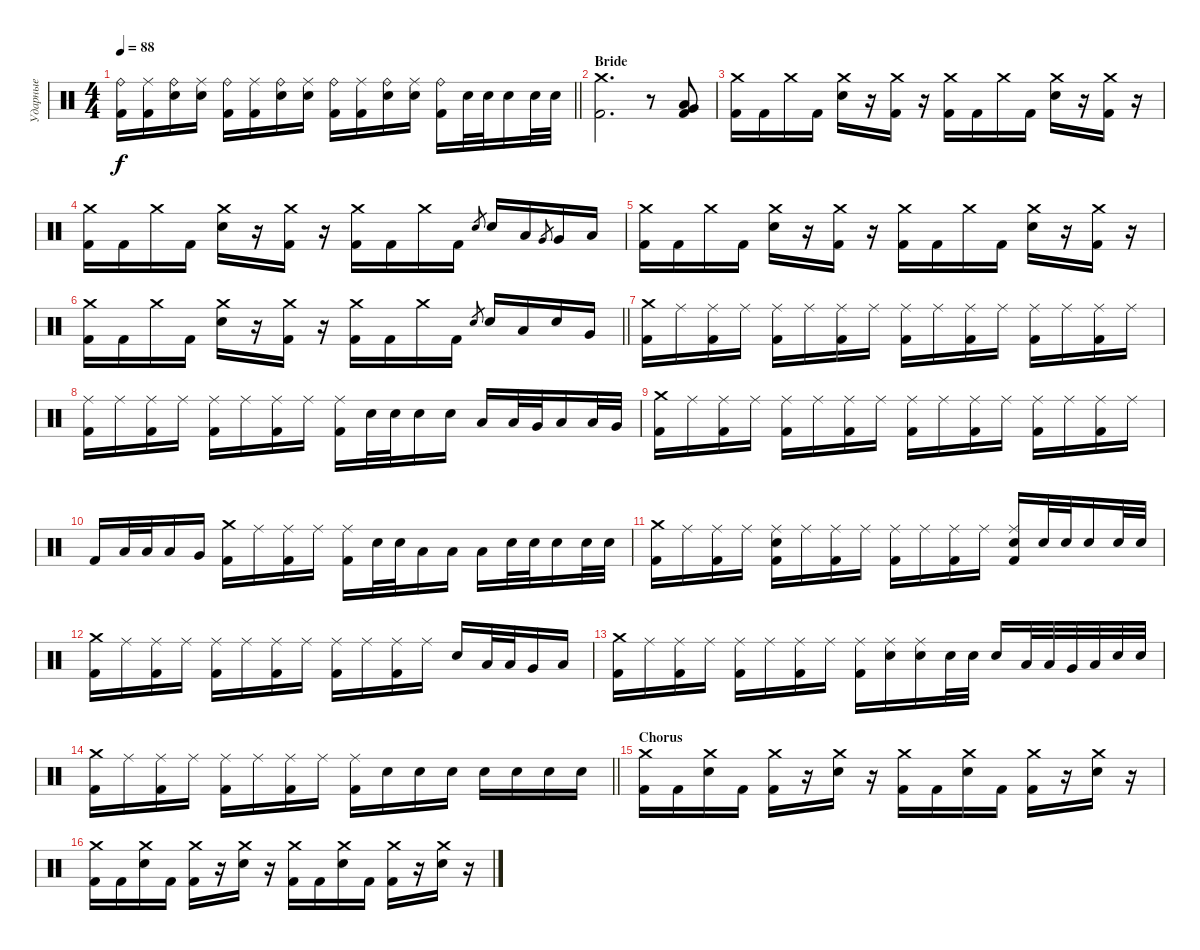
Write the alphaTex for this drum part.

\track ("Ударные" "Ударные") {instrument percussion}
\staff {score}
\articulation defaults
\ts (4 4)
\tempo 88
\clef neutral
\barLineRight lightlight
\ks c
("Ride (bell)" "Kick (hit) 2").16{dy f} ("Ride (middle)" "Kick (hit) 2").16 ("Ride (bell)" "Electric Snare (hit)").16 ("Ride (middle)" "Electric Snare (hit)").16 ("Ride (bell)" "Kick (hit) 2").16 ("Ride (middle)" "Kick (hit) 2").16 ("Ride (bell)" "Electric Snare (hit)").16 ("Ride (middle)" "Electric Snare (hit)").16 ("Ride (bell)" "Kick (hit) 2").16 ("Ride (middle)" "Kick (hit) 2").16 ("Ride (bell)" "Electric Snare (hit)").16 ("Ride (middle)" "Electric Snare (hit)").16 ("Ride (bell)" "Kick (hit) 2").16 "Electric Snare (hit)".32 "Electric Snare (hit)".32 "Electric Snare (hit)".16 "Electric Snare (hit)".32 "Electric Snare (hit)".32 |
\section ("" "Bride")
("Crash medium (hit)" "Kick (hit) 2").2{d} r.8 ("Very Low Tom (hit)" "Low Floor Tom (hit)" "Kick (hit) 2").8 |
("Crash medium (hit)" "Kick (hit) 2").16 "Kick (hit) 2".16 "Crash medium (hit)".16 "Kick (hit) 2".16 ("Crash medium (hit)" "Electric Snare (hit)").16 r.16 ("Crash medium (hit)" "Kick (hit) 2").16 r.16 ("Crash medium (hit)" "Kick (hit) 2").16 "Kick (hit) 2".16 "Crash medium (hit)".16 "Kick (hit) 2".16 ("Crash medium (hit)" "Electric Snare (hit)").16 r.16 ("Crash medium (hit)" "Kick (hit) 2").16 r.16 |
("Crash medium (hit)" "Kick (hit) 2").16 "Kick (hit) 2".16 "Crash medium (hit)".16 "Kick (hit) 2".16 ("Crash medium (hit)" "Electric Snare (hit)").16 r.16 ("Crash medium (hit)" "Kick (hit) 2").16 r.16 ("Crash medium (hit)" "Kick (hit) 2").16 "Kick (hit) 2".16 "Crash medium (hit)".16 "Kick (hit) 2".16 "Electric Snare (hit)".8{gr} "Electric Snare (hit)".16 "Low Tom (hit)".16 "Very Low Tom (hit)".8{gr} "Very Low Tom (hit)".16 "Low Floor Tom (hit)".16 |
("Crash medium (hit)" "Kick (hit) 2").16 "Kick (hit) 2".16 "Crash medium (hit)".16 "Kick (hit) 2".16 ("Crash medium (hit)" "Electric Snare (hit)").16 r.16 ("Crash medium (hit)" "Kick (hit) 2").16 r.16 ("Crash medium (hit)" "Kick (hit) 2").16 "Kick (hit) 2".16 "Crash medium (hit)".16 "Kick (hit) 2".16 ("Crash medium (hit)" "Electric Snare (hit)").16 r.16 ("Crash medium (hit)" "Kick (hit) 2").16 r.16 |
\barLineRight lightlight
("Crash medium (hit)" "Kick (hit) 2").16 "Kick (hit) 2".16 "Crash medium (hit)".16 "Kick (hit) 2".16 ("Crash medium (hit)" "Electric Snare (hit)").16 r.16 ("Crash medium (hit)" "Kick (hit) 2").16 r.16 ("Crash medium (hit)" "Kick (hit) 2").16 "Kick (hit) 2".16 "Crash medium (hit)".16 "Kick (hit) 2".16 "Electric Snare (hit)".8{gr} "Electric Snare (hit)".16 "Low Tom (hit)".16 "Electric Snare (hit)".16 "Very Low Tom (hit)".16 |
("Crash medium (hit)" "Kick (hit) 2").16 "Ride (middle)".16 ("Ride (middle)" "Kick (hit) 2").16 "Ride (middle)".16 ("Ride (middle)" "Kick (hit) 2").16 "Ride (middle)".16 ("Ride (middle)" "Kick (hit) 2").16 "Ride (middle)".16 ("Ride (middle)" "Kick (hit) 2").16 "Ride (middle)".16 ("Ride (middle)" "Kick (hit) 2").16 "Ride (middle)".16 ("Ride (middle)" "Kick (hit) 2").16 "Ride (middle)".16 ("Ride (middle)" "Kick (hit) 2").16 "Ride (middle)".16 |
("Ride (middle)" "Kick (hit) 2").16 "Ride (middle)".16 ("Ride (middle)" "Kick (hit) 2").16 "Ride (middle)".16 ("Ride (middle)" "Kick (hit) 2").16 "Ride (middle)".16 ("Ride (middle)" "Kick (hit) 2").16 "Ride (middle)".16 ("Ride (middle)" "Kick (hit) 2").16 "Electric Snare (hit)".32 "Electric Snare (hit)".32 "Electric Snare (hit)".16 "Electric Snare (hit)".16 "Low Tom (hit)".16 "Low Tom (hit)".32 "Very Low Tom (hit)".32 "Low Floor Tom (hit)".16 "Low Tom (hit)".32 "Very Low Tom (hit)".32 |
("Crash medium (hit)" "Kick (hit) 2").16 "Ride (middle)".16 ("Ride (middle)" "Kick (hit) 2").16 "Ride (middle)".16 ("Ride (middle)" "Kick (hit) 2").16 "Ride (middle)".16 ("Ride (middle)" "Kick (hit) 2").16 "Ride (middle)".16 ("Ride (middle)" "Kick (hit) 2").16 "Ride (middle)".16 ("Ride (middle)" "Kick (hit) 2").16 "Ride (middle)".16 ("Ride (middle)" "Kick (hit) 2").16 "Ride (middle)".16 ("Ride (middle)" "Kick (hit) 2").16 "Ride (middle)".16 |
"Kick (hit) 2".16 "Low Tom (hit)".32 "Low Tom (hit)".32 "Low Tom (hit)".16 "Very Low Tom (hit)".16 ("Crash medium (hit)" "Kick (hit) 2").16 "Ride (middle)".16 ("Ride (middle)" "Kick (hit) 2").16 "Ride (middle)".16 ("Ride (middle)" "Kick (hit) 2").16 "Electric Snare (hit)".32 "Electric Snare (hit)".32 "Low Tom (hit)".16 "Low Tom (hit)".16 "Low Tom (hit)".16 "Electric Snare (hit)".32 "Electric Snare (hit)".32 "Electric Snare (hit)".16 "Electric Snare (hit)".32 "Electric Snare (hit)".32 |
("Crash medium (hit)" "Kick (hit) 2").16 "Ride (middle)".16 ("Ride (middle)" "Kick (hit) 2").16 "Ride (middle)".16 ("Ride (middle)" "Electric Snare (hit)" "Kick (hit) 2").16 "Ride (middle)".16 ("Ride (middle)" "Kick (hit) 2").16 "Ride (middle)".16 ("Ride (middle)" "Kick (hit) 2").16 "Ride (middle)".16 ("Ride (middle)" "Kick (hit) 2").16 "Ride (middle)".16 ("Ride (middle)" "Electric Snare (hit)" "Kick (hit) 2").16 "Electric Snare (hit)".32 "Electric Snare (hit)".32 "Electric Snare (hit)".16 "Electric Snare (hit)".32 "Electric Snare (hit)".32 |
("Crash medium (hit)" "Kick (hit) 2").16 "Ride (middle)".16 ("Ride (middle)" "Kick (hit) 2").16 "Ride (middle)".16 ("Ride (middle)" "Kick (hit) 2").16 "Ride (middle)".16 ("Ride (middle)" "Kick (hit) 2").16 "Ride (middle)".16 ("Ride (middle)" "Kick (hit) 2").16 "Ride (middle)".16 ("Ride (middle)" "Kick (hit) 2").16 "Ride (middle)".16 "Electric Snare (hit)".16 "Low Tom (hit)".32 "Low Tom (hit)".32 "Very Low Tom (hit)".16 "Low Floor Tom (hit)".16 |
("Crash medium (hit)" "Kick (hit) 2").16 "Ride (middle)".16 ("Ride (middle)" "Kick (hit) 2").16 "Ride (middle)".16 ("Ride (middle)" "Kick (hit) 2").16 "Ride (middle)".16 ("Ride (middle)" "Kick (hit) 2").16 "Ride (middle)".16 ("Ride (middle)" "Kick (hit) 2").16 ("Ride (middle)" "Electric Snare (hit)").16 ("Ride (middle)" "Electric Snare (hit)").16 "Electric Snare (hit)".32 "Electric Snare (hit)".32 "Electric Snare (hit)".16 "Low Tom (hit)".32 "Low Tom (hit)".32 "Very Low Tom (hit)".32 "Low Floor Tom (hit)".32 "Electric Snare (hit)".32 "Electric Snare (hit)".32 |
\barLineRight lightlight
("Crash medium (hit)" "Kick (hit) 2").16 "Ride (middle)".16 ("Ride (middle)" "Kick (hit) 2").16 "Ride (middle)".16 ("Ride (middle)" "Kick (hit) 2").16 "Ride (middle)".16 ("Ride (middle)" "Kick (hit) 2").16 "Ride (middle)".16 ("Ride (middle)" "Kick (hit) 2").16 "Electric Snare (hit)".16 "Electric Snare (hit)".16 "Electric Snare (hit)".16 "Electric Snare (hit)".16 "Electric Snare (hit)".16 "Electric Snare (hit)".16 "Electric Snare (hit)".16 |
\section ("" "Chorus")
("Crash medium (hit)" "Kick (hit) 2").16 "Kick (hit) 2".16 ("Crash medium (hit)" "Electric Snare (hit)").16 "Kick (hit) 2".16 ("Crash medium (hit)" "Kick (hit) 2").16 r.16 ("Crash medium (hit)" "Electric Snare (hit)").16 r.16 ("Crash medium (hit)" "Kick (hit) 2").16 "Kick (hit) 2".16 ("Crash medium (hit)" "Electric Snare (hit)").16 "Kick (hit) 2".16 ("Crash medium (hit)" "Kick (hit) 2").16 r.16 ("Crash medium (hit)" "Electric Snare (hit)").16 r.16 |
("Crash medium (hit)" "Kick (hit) 2").16 "Kick (hit) 2".16 ("Crash medium (hit)" "Electric Snare (hit)").16 "Kick (hit) 2".16 ("Crash medium (hit)" "Kick (hit) 2").16 r.16 ("Crash medium (hit)" "Electric Snare (hit)").16 r.16 ("Crash medium (hit)" "Kick (hit) 2").16 "Kick (hit) 2".16 ("Crash medium (hit)" "Electric Snare (hit)").16 "Kick (hit) 2".16 ("Crash medium (hit)" "Kick (hit) 2").16 r.16 ("Crash medium (hit)" "Electric Snare (hit)").16 r.16
